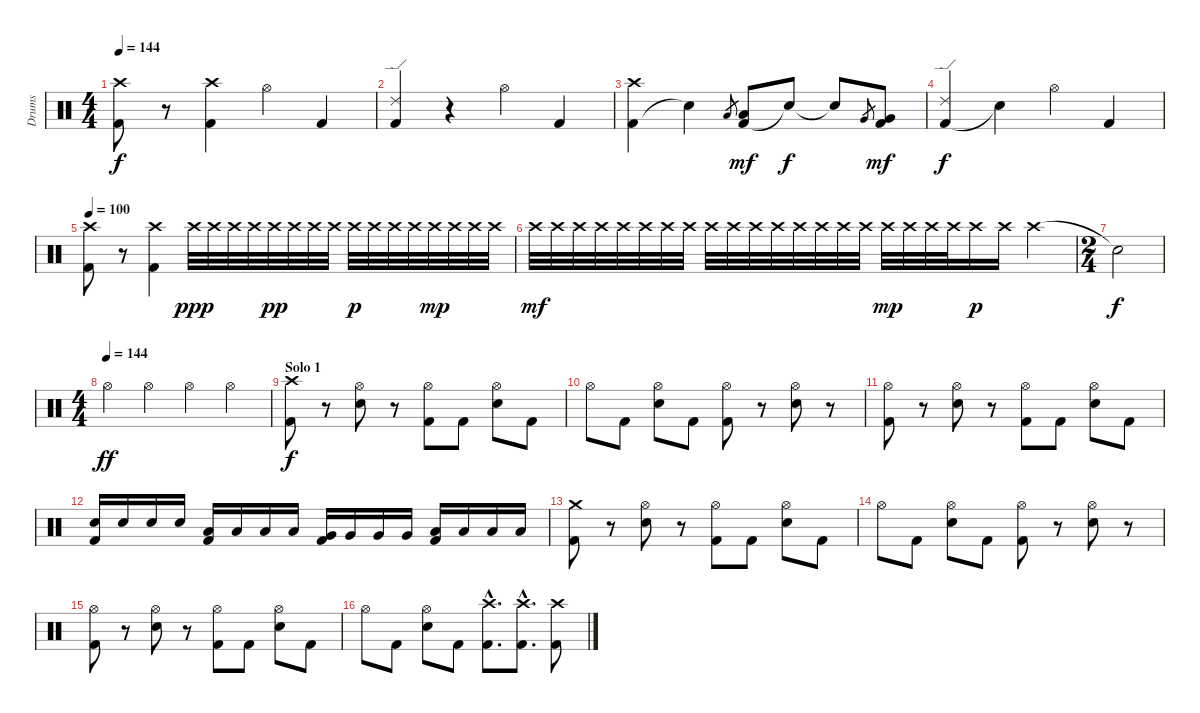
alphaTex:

\track ("Drums" "Drums") {instrument percussion}
\staff {score}
\articulation defaults
\ts (4 4)
\tempo 144
\clef neutral
\ks c
("Kick (hit) 2" "Crash high (hit)").8{dy f} r.8 ("Kick (hit) 2" "Crash high (hit)").4 "Hi-Hat (open)".4 "Kick (hit) 2".4 |
("Kick (hit) 2" "Ride (edge) 2").4 r.4 "Hi-Hat (open)".4 "Kick (hit) 2".4 |
("Kick (hit) 2" "Crash high (hit)").4 "Snare (hit)"{t}.4 "Low Tom (hit)".8{gr} ("Kick (hit) 2" "Low Tom (hit)").8{dy mf} "Snare (hit)"{t}.8{dy f} "Snare (hit)"{t}.8 "Very Low Tom (hit)".8{gr} ("Kick (hit) 2" "Very Low Tom (hit)").8{dy mf} |
("Kick (hit) 2" "Ride (edge) 2").4{dy f} "Snare (hit)"{t}.4 "Hi-Hat (open)".4 "Kick (hit) 2".4 |
\tempo 100
("Kick (hit) 2" "Crash high (hit)").8 r.8 ("Kick (hit) 2" "Crash high (hit)").4 "Crash high (hit)".32{dy ppp} "Crash high (hit)".32 "Crash high (hit)".32 "Crash high (hit)".32 "Crash high (hit)".32{dy pp} "Crash high (hit)".32 "Crash high (hit)".32 "Crash high (hit)".32 "Crash high (hit)".32{dy p} "Crash high (hit)".32 "Crash high (hit)".32 "Crash high (hit)".32 "Crash high (hit)".32{dy mp} "Crash high (hit)".32 "Crash high (hit)".32 "Crash high (hit)".32 |
"Crash high (hit)".32{dy mf} "Crash high (hit)".32 "Crash high (hit)".32 "Crash high (hit)".32 "Crash high (hit)".32 "Crash high (hit)".32 "Crash high (hit)".32 "Crash high (hit)".32 "Crash high (hit)".32 "Crash high (hit)".32 "Crash high (hit)".32 "Crash high (hit)".32 "Crash high (hit)".32 "Crash high (hit)".32 "Crash high (hit)".32 "Crash high (hit)".32 "Crash high (hit)".32{dy mp} "Crash high (hit)".32 "Crash high (hit)".32 "Crash high (hit)".32 "Crash high (hit)".16{dy p} "Crash high (hit)".16 "Crash high (hit)".4 |
\ts (2 4)
"Snare (hit)"{t}.2{dy f} |
\ts (4 4)
\tempo (144)
"Hi-Hat (open)".4{dy ff} "Hi-Hat (open)".4 "Hi-Hat (open)".4 "Hi-Hat (open)".4 |
\section ("" "Solo 1")
("Kick (hit) 2" "Crash high (hit)").8{dy f} r.8 ("Hi-Hat (open)" "Electric Snare (hit)").8 r.8 ("Kick (hit) 2" "Hi-Hat (open)").8 "Kick (hit) 2".8 ("Hi-Hat (open)" "Electric Snare (hit)").8 "Kick (hit) 2".8 |
"Hi-Hat (open)".8 "Kick (hit) 2".8 ("Hi-Hat (open)" "Electric Snare (hit)").8 "Kick (hit) 2".8 ("Kick (hit) 2" "Hi-Hat (open)").8 r.8 ("Hi-Hat (open)" "Electric Snare (hit)").8 r.8 |
("Kick (hit) 2" "Hi-Hat (open)").8 r.8 ("Hi-Hat (open)" "Electric Snare (hit)").8 r.8 ("Kick (hit) 2" "Hi-Hat (open)").8 "Kick (hit) 2".8 ("Hi-Hat (open)" "Electric Snare (hit)").8 "Kick (hit) 2".8 |
("Kick (hit) 2" "Electric Snare (hit)").16 "Electric Snare (hit)".16 "Electric Snare (hit)".16 "Electric Snare (hit)".16 ("Kick (hit) 2" "Low Tom (hit)").16 "Low Tom (hit)".16 "Low Tom (hit)".16 "Low Tom (hit)".16 ("Kick (hit) 2" "Very Low Tom (hit)").16 "Very Low Tom (hit)".16 "Very Low Tom (hit)".16 "Very Low Tom (hit)".16 ("Kick (hit) 2" "Low Floor Tom (hit)").16 "Low Floor Tom (hit)".16 "Low Floor Tom (hit)".16 "Low Floor Tom (hit)".16 |
("Kick (hit) 2" "Crash medium (hit)").8 r.8 ("Hi-Hat (open)" "Electric Snare (hit)").8 r.8 ("Kick (hit) 2" "Hi-Hat (open)").8 "Kick (hit) 2".8 ("Hi-Hat (open)" "Electric Snare (hit)").8 "Kick (hit) 2".8 |
"Hi-Hat (open)".8 "Kick (hit) 2".8 ("Hi-Hat (open)" "Electric Snare (hit)").8 "Kick (hit) 2".8 ("Kick (hit) 2" "Hi-Hat (open)").8 r.8 ("Hi-Hat (open)" "Electric Snare (hit)").8 r.8 |
("Kick (hit) 2" "Hi-Hat (open)").8 r.8 ("Hi-Hat (open)" "Electric Snare (hit)").8 r.8 ("Kick (hit) 2" "Hi-Hat (open)").8 "Kick (hit) 2".8 ("Hi-Hat (open)" "Electric Snare (hit)").8 "Kick (hit) 2".8 |
"Hi-Hat (open)".8 "Kick (hit) 2".8 ("Hi-Hat (open)" "Electric Snare (hit)").8 "Kick (hit) 2".8 ("Kick (hit) 2"{hac} "Crash high (hit)"{hac}).8{d} ("Kick (hit) 2"{hac} "Crash high (hit)"{hac}).8{d} ("Kick (hit) 2" "Crash high (hit)").8
